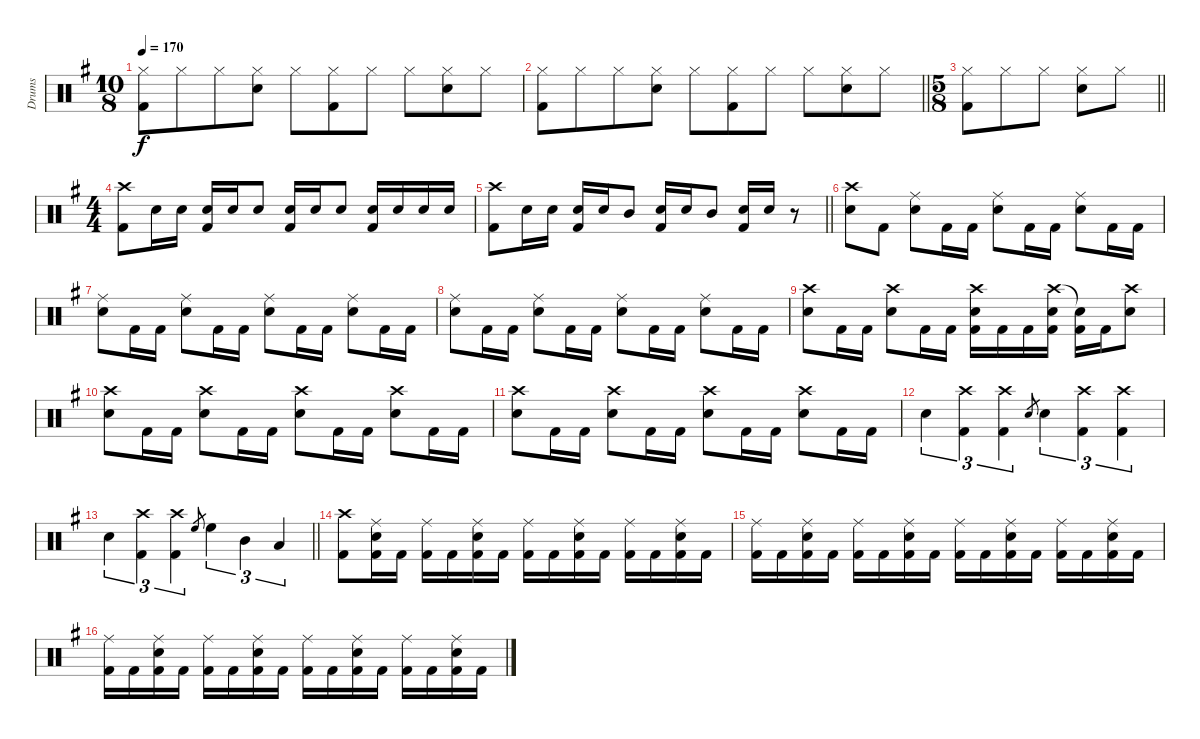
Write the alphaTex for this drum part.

\track ("Drums" "Drums") {instrument percussion}
\staff {score}
\articulation defaults
\ts (10 8)
\tempo 170
\clef neutral
\ks g
("Hi-Hat (closed)" "Kick (hit) 2").8{dy f} "Hi-Hat (closed)".8 "Hi-Hat (closed)".8 ("Hi-Hat (closed)" "Snare (hit) 2").8 "Hi-Hat (closed)".8 ("Hi-Hat (closed)" "Kick (hit) 2").8 "Hi-Hat (closed)".8 "Hi-Hat (closed)".8 ("Hi-Hat (closed)" "Snare (hit) 2").8 "Hi-Hat (closed)".8 |
\barLineRight lightlight
("Hi-Hat (closed)" "Kick (hit) 2").8 "Hi-Hat (closed)".8 "Hi-Hat (closed)".8 ("Hi-Hat (closed)" "Snare (hit) 2").8 "Hi-Hat (closed)".8 ("Hi-Hat (closed)" "Kick (hit) 2").8 "Hi-Hat (closed)".8 "Hi-Hat (closed)".8 ("Hi-Hat (closed)" "Snare (hit) 2").8 "Hi-Hat (closed)".8 |
\ts (5 8)
\barLineRight lightlight
("Hi-Hat (closed)" "Kick (hit) 2").8 "Hi-Hat (closed)".8 "Hi-Hat (closed)".8 ("Hi-Hat (closed)" "Snare (hit) 2").8 "Hi-Hat (closed)".8 |
\ts (4 4)
("Crash high (hit)" "Kick (hit) 2").8 "Snare (hit) 2".16 "Snare (hit) 2".16 ("Snare (hit) 2" "Kick (hit) 2").16 "Snare (hit) 2".16 "Snare (hit) 2".8 ("Snare (hit) 2" "Kick (hit) 2").16 "Snare (hit) 2".16 "Snare (hit) 2".8 ("Snare (hit) 2" "Kick (hit) 2").16 "Snare (hit) 2".16 "Snare (hit) 2".16 "Snare (hit) 2".16 |
\barLineRight lightlight
("Crash high (hit)" "Kick (hit) 2").8 "Snare (hit) 2".16 "Snare (hit) 2".16 ("Snare (hit) 2" "Kick (hit) 2").16 "Snare (hit) 2".16 "Mid Tom (hit)".8 ("Snare (hit) 2" "Kick (hit) 2").16 "Snare (hit) 2".16 "Mid Tom (hit)".8 ("Snare (hit) 2" "Kick (hit) 2").16 "Snare (hit) 2".16 r.8 |
("Crash high (hit)" "Snare (hit) 2").8 "Kick (hit) 2".8 ("Ride (middle)" "Snare (hit) 2").8 "Kick (hit) 2".16 "Kick (hit) 2".16 ("Ride (middle)" "Snare (hit) 2").8 "Kick (hit) 2".16 "Kick (hit) 2".16 ("Ride (middle)" "Snare (hit) 2").8 "Kick (hit) 2".16 "Kick (hit) 2".16 |
("Ride (middle)" "Snare (hit) 2").8 "Kick (hit) 2".16 "Kick (hit) 2".16 ("Ride (middle)" "Snare (hit) 2").8 "Kick (hit) 2".16 "Kick (hit) 2".16 ("Ride (middle)" "Snare (hit) 2").8 "Kick (hit) 2".16 "Kick (hit) 2".16 ("Ride (middle)" "Snare (hit) 2").8 "Kick (hit) 2".16 "Kick (hit) 2".16 |
("Ride (middle)" "Snare (hit) 2").8 "Kick (hit) 2".16 "Kick (hit) 2".16 ("Ride (middle)" "Snare (hit) 2").8 "Kick (hit) 2".16 "Kick (hit) 2".16 ("Ride (middle)" "Snare (hit) 2").8 "Kick (hit) 2".16 "Kick (hit) 2".16 ("Ride (middle)" "Snare (hit) 2").8 "Kick (hit) 2".16 "Kick (hit) 2".16 |
("Crash high (hit)" "Snare (hit) 2").8 "Kick (hit) 2".16 "Kick (hit) 2".16 ("Crash high (hit)" "Snare (hit) 2").8 "Kick (hit) 2".16 "Kick (hit) 2".16 ("Crash high (hit)" "Snare (hit) 2" "Kick (hit) 2").16 "Kick (hit) 2".16 "Kick (hit) 2".16 ("Crash high (hit)" "Snare (hit) 2" "Kick (hit) 2").16 ("Snare (hit)"{t} "Kick (hit) 2").16 "Kick (hit) 2".16 ("Crash high (hit)" "Snare (hit) 2").8 |
("Crash high (hit)" "Snare (hit) 2").8 "Kick (hit) 2".16 "Kick (hit) 2".16 ("Crash high (hit)" "Snare (hit) 2").8 "Kick (hit) 2".16 "Kick (hit) 2".16 ("Crash high (hit)" "Snare (hit) 2").8 "Kick (hit) 2".16 "Kick (hit) 2".16 ("Crash high (hit)" "Snare (hit) 2").8 "Kick (hit) 2".16 "Kick (hit) 2".16 |
("Crash high (hit)" "Snare (hit) 2").8 "Kick (hit) 2".16 "Kick (hit) 2".16 ("Crash high (hit)" "Snare (hit) 2").8 "Kick (hit) 2".16 "Kick (hit) 2".16 ("Crash high (hit)" "Snare (hit) 2").8 "Kick (hit) 2".16 "Kick (hit) 2".16 ("Crash high (hit)" "Snare (hit) 2").8 "Kick (hit) 2".16 "Kick (hit) 2".16 |
"Snare (hit) 2".4{tu (3 2)} ("Crash high (hit)" "Kick (hit) 2").4{tu (3 2)} ("Crash high (hit)" "Kick (hit) 2").4{tu (3 2)} "Snare (hit) 2".8{gr} "Snare (hit) 2".4{tu (3 2)} ("Crash high (hit)" "Kick (hit) 2").4{tu (3 2)} ("Crash high (hit)" "Kick (hit) 2").4{tu (3 2)} |
\barLineRight lightlight "Snare (hit) 2".4{tu (3 2)}
("Crash high (hit)" "Kick (hit) 2").4{tu (3 2)} ("Crash high (hit)" "Kick (hit) 2").4{tu (3 2)} "High Floor Tom (hit)".8{gr} "High Floor Tom (hit)".4{tu (3 2)} "Mid Tom (hit)".4{tu (3 2)} "Low Tom (hit)".4{tu (3 2)} |
("Crash high (hit)" "Kick (hit) 2").8 ("Ride (middle)" "Snare (hit) 2" "Kick (hit) 2").16 "Kick (hit) 2".16 ("Ride (middle)" "Kick (hit) 2").16 "Kick (hit) 2".16 ("Ride (middle)" "Snare (hit) 2" "Kick (hit) 2").16 "Kick (hit) 2".16 ("Ride (middle)" "Kick (hit) 2").16 "Kick (hit) 2".16 ("Ride (middle)" "Snare (hit) 2" "Kick (hit) 2").16 "Kick (hit) 2".16 ("Ride (middle)" "Kick (hit) 2").16 "Kick (hit) 2".16 ("Ride (middle)" "Snare (hit) 2" "Kick (hit) 2").16 "Kick (hit) 2".16 |
("Ride (middle)" "Kick (hit) 2").16 "Kick (hit) 2".16 ("Ride (middle)" "Snare (hit) 2" "Kick (hit) 2").16 "Kick (hit) 2".16 ("Ride (middle)" "Kick (hit) 2").16 "Kick (hit) 2".16 ("Ride (middle)" "Snare (hit) 2" "Kick (hit) 2").16 "Kick (hit) 2".16 ("Ride (middle)" "Kick (hit) 2").16 "Kick (hit) 2".16 ("Ride (middle)" "Snare (hit) 2" "Kick (hit) 2").16 "Kick (hit) 2".16 ("Ride (middle)" "Kick (hit) 2").16 "Kick (hit) 2".16 ("Ride (middle)" "Snare (hit) 2" "Kick (hit) 2").16 "Kick (hit) 2".16 |
("Ride (middle)" "Kick (hit) 2").16 "Kick (hit) 2".16 ("Ride (middle)" "Snare (hit) 2" "Kick (hit) 2").16 "Kick (hit) 2".16 ("Ride (middle)" "Kick (hit) 2").16 "Kick (hit) 2".16 ("Ride (middle)" "Snare (hit) 2" "Kick (hit) 2").16 "Kick (hit) 2".16 ("Ride (middle)" "Kick (hit) 2").16 "Kick (hit) 2".16 ("Ride (middle)" "Snare (hit) 2" "Kick (hit) 2").16 "Kick (hit) 2".16 ("Ride (middle)" "Kick (hit) 2").16 "Kick (hit) 2".16 ("Ride (middle)" "Snare (hit) 2" "Kick (hit) 2").16 "Kick (hit) 2".16
